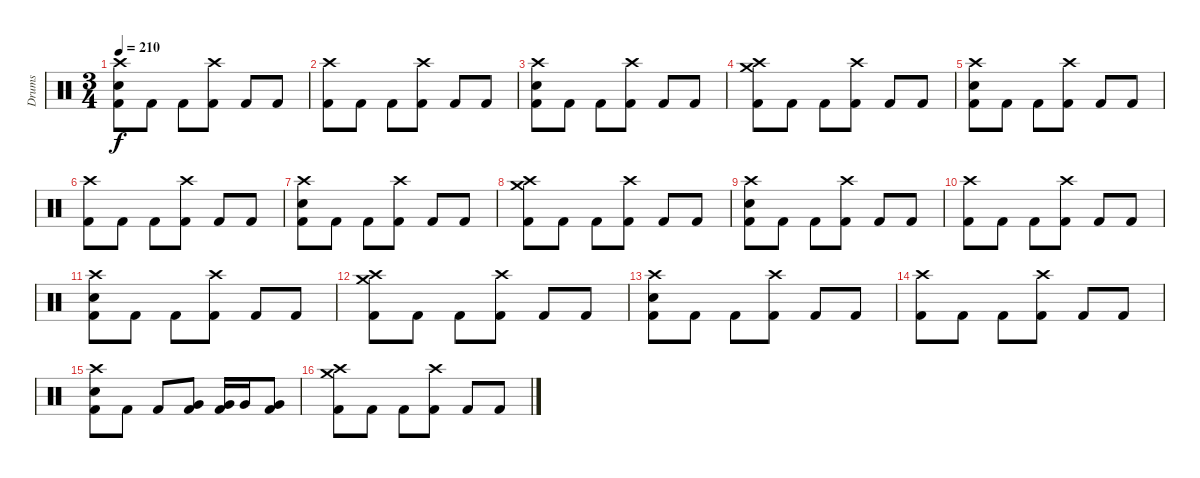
\track ("Drums" "Drums") {instrument percussion}
\staff {score}
\articulation defaults
\ts (3 4)
\tempo 210
\clef neutral
\ks c
("Crash high (hit)" "Electric Snare (hit)" "Kick (hit) 2").8{dy f} "Kick (hit) 2".8 "Kick (hit) 2".8 ("Crash high (hit)" "Kick (hit) 2").8 "Kick (hit) 2".8 "Kick (hit) 2".8 |
("Crash high (hit)" "Kick (hit) 2").8 "Kick (hit) 2".8 "Kick (hit) 2".8 ("Crash high (hit)" "Kick (hit) 2").8 "Kick (hit) 2".8 "Kick (hit) 2".8 |
("Crash high (hit)" "Electric Snare (hit)" "Kick (hit) 2").8 "Kick (hit) 2".8 "Kick (hit) 2".8 ("Crash high (hit)" "Kick (hit) 2").8 "Kick (hit) 2".8 "Kick (hit) 2".8 |
("Crash high (hit)" "Crash medium (hit)" "Kick (hit) 2").8 "Kick (hit) 2".8 "Kick (hit) 2".8 ("Crash high (hit)" "Kick (hit) 2").8 "Kick (hit) 2".8 "Kick (hit) 2".8 |
("Crash high (hit)" "Electric Snare (hit)" "Kick (hit) 2").8 "Kick (hit) 2".8 "Kick (hit) 2".8 ("Crash high (hit)" "Kick (hit) 2").8 "Kick (hit) 2".8 "Kick (hit) 2".8 |
("Crash high (hit)" "Kick (hit) 2").8 "Kick (hit) 2".8 "Kick (hit) 2".8 ("Crash high (hit)" "Kick (hit) 2").8 "Kick (hit) 2".8 "Kick (hit) 2".8 |
("Crash high (hit)" "Electric Snare (hit)" "Kick (hit) 2").8{volume 8} "Kick (hit) 2".8 "Kick (hit) 2".8 ("Crash high (hit)" "Kick (hit) 2").8 "Kick (hit) 2".8 "Kick (hit) 2".8 |
("Crash high (hit)" "Crash medium (hit)" "Kick (hit) 2").8 "Kick (hit) 2".8 "Kick (hit) 2".8 ("Crash high (hit)" "Kick (hit) 2").8 "Kick (hit) 2".8 "Kick (hit) 2".8 |
("Crash high (hit)" "Electric Snare (hit)" "Kick (hit) 2").8 "Kick (hit) 2".8 "Kick (hit) 2".8 ("Crash high (hit)" "Kick (hit) 2").8 "Kick (hit) 2".8 "Kick (hit) 2".8 |
("Crash high (hit)" "Kick (hit) 2").8 "Kick (hit) 2".8 "Kick (hit) 2".8 ("Crash high (hit)" "Kick (hit) 2").8 "Kick (hit) 2".8 "Kick (hit) 2".8 |
("Crash high (hit)" "Electric Snare (hit)" "Kick (hit) 2").8 "Kick (hit) 2".8 "Kick (hit) 2".8 ("Crash high (hit)" "Kick (hit) 2").8 "Kick (hit) 2".8 "Kick (hit) 2".8 |
("Crash high (hit)" "Crash medium (hit)" "Kick (hit) 2").8 "Kick (hit) 2".8 "Kick (hit) 2".8 ("Crash high (hit)" "Kick (hit) 2").8 "Kick (hit) 2".8 "Kick (hit) 2".8 |
("Crash high (hit)" "Electric Snare (hit)" "Kick (hit) 2").8 "Kick (hit) 2".8 "Kick (hit) 2".8 ("Crash high (hit)" "Kick (hit) 2").8 "Kick (hit) 2".8 "Kick (hit) 2".8 |
("Crash high (hit)" "Kick (hit) 2").8{volume 6} "Kick (hit) 2".8 "Kick (hit) 2".8 ("Crash high (hit)" "Kick (hit) 2").8 "Kick (hit) 2".8 "Kick (hit) 2".8 |
("Crash high (hit)" "Electric Snare (hit)" "Kick (hit) 2").8 "Kick (hit) 2".8 "Kick (hit) 2".8 ("Very Low Tom (hit)" "Kick (hit) 2").8 ("Very Low Tom (hit)" "Kick (hit) 2").16 "Very Low Tom (hit)".16 ("Very Low Tom (hit)" "Kick (hit) 2").8 |
("Crash high (hit)" "Crash medium (hit)" "Kick (hit) 2").8 "Kick (hit) 2".8 "Kick (hit) 2".8 ("Crash high (hit)" "Kick (hit) 2").8 "Kick (hit) 2".8 "Kick (hit) 2".8
